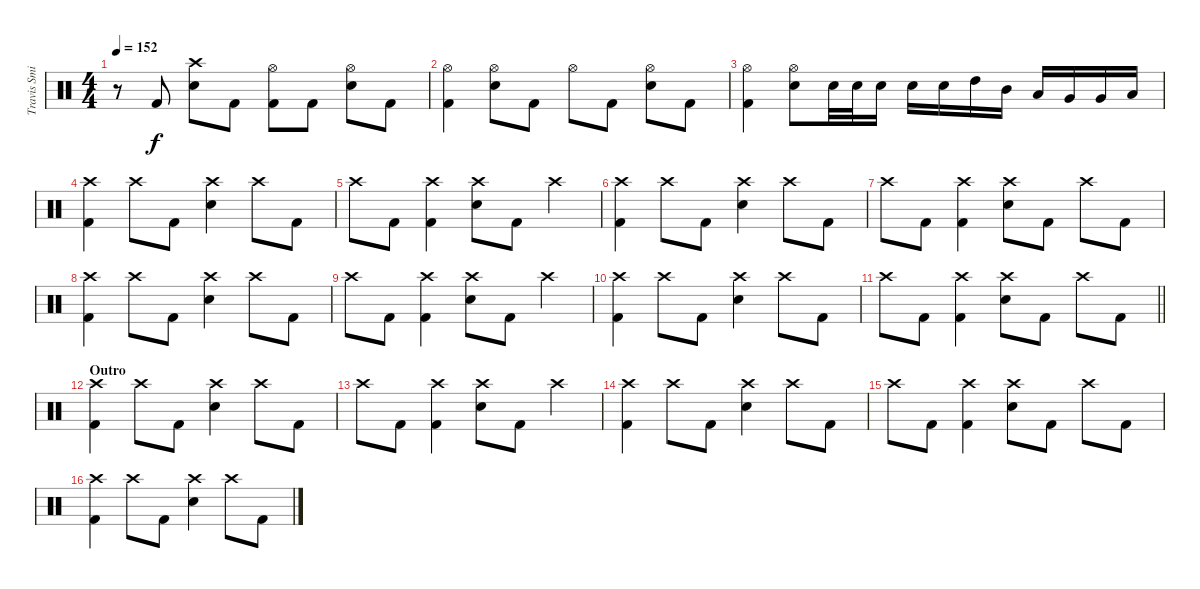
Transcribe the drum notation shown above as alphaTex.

\track ("Travis Smith" "Travis Smi") {instrument percussion}
\staff {score}
\articulation defaults
\ts (4 4)
\tempo 152
\clef neutral
\ks c
r.8{dy f} "Kick (hit) 2".8 ("Snare (hit) 2" "Crash high (hit)").8 "Kick (hit) 2".8 ("Kick (hit) 2" "Hi-Hat (open)").8 "Kick (hit) 2".8 ("Snare (hit) 2" "Hi-Hat (open)").8 "Kick (hit) 2".8 |
("Kick (hit) 2" "Hi-Hat (open)").4 ("Snare (hit) 2" "Hi-Hat (open)").8 "Kick (hit) 2".8 "Hi-Hat (open)".8 "Kick (hit) 2".8 ("Snare (hit) 2" "Hi-Hat (open)").8 "Kick (hit) 2".8 |
("Kick (hit) 2" "Hi-Hat (open)").4 ("Snare (hit) 2" "Hi-Hat (open)").8 "Snare (hit) 2".32 "Snare (hit) 2".32 "Snare (hit) 2".16 "Snare (hit) 2".16 "Snare (hit) 2".16 "High Tom (hit)".16 "Mid Tom (hit)".16 "Low Tom (hit)".16 "Very Low Tom (hit)".16 "Very Low Tom (hit)".16 "Low Floor Tom (hit)".16 |
("Kick (hit) 2" "Crash high (hit)").4 "Crash high (hit)".8 "Kick (hit) 2".8 ("Snare (hit) 2" "Crash high (hit)").4 "Crash high (hit)".8 "Kick (hit) 2".8 |
"Crash high (hit)".8 "Kick (hit) 2".8 ("Kick (hit) 2" "Crash high (hit)").4 ("Snare (hit) 2" "Crash high (hit)").8 "Kick (hit) 2".8 "Crash high (hit)".4 |
("Kick (hit) 2" "Crash high (hit)").4 "Crash high (hit)".8 "Kick (hit) 2".8 ("Snare (hit) 2" "Crash high (hit)").4 "Crash high (hit)".8 "Kick (hit) 2".8 |
"Crash high (hit)".8 "Kick (hit) 2".8 ("Kick (hit) 2" "Crash high (hit)").4 ("Snare (hit) 2" "Crash high (hit)").8 "Kick (hit) 2".8 "Crash high (hit)".8 "Kick (hit) 2".8 |
("Kick (hit) 2" "Crash high (hit)").4 "Crash high (hit)".8 "Kick (hit) 2".8 ("Snare (hit) 2" "Crash high (hit)").4 "Crash high (hit)".8 "Kick (hit) 2".8 |
"Crash high (hit)".8 "Kick (hit) 2".8 ("Kick (hit) 2" "Crash high (hit)").4 ("Snare (hit) 2" "Crash high (hit)").8 "Kick (hit) 2".8 "Crash high (hit)".4 |
("Kick (hit) 2" "Crash high (hit)").4 "Crash high (hit)".8 "Kick (hit) 2".8 ("Snare (hit) 2" "Crash high (hit)").4 "Crash high (hit)".8 "Kick (hit) 2".8 |
\barLineRight lightlight "Crash high (hit)".8 "Kick (hit) 2".8
("Kick (hit) 2" "Crash high (hit)").4 ("Snare (hit) 2" "Crash high (hit)").8 "Kick (hit) 2".8 "Crash high (hit)".8 "Kick (hit) 2".8 |
\section ("" "Outro")
("Kick (hit) 2" "Crash high (hit)").4 "Crash high (hit)".8 "Kick (hit) 2".8 ("Snare (hit) 2" "Crash high (hit)").4 "Crash high (hit)".8 "Kick (hit) 2".8 |
"Crash high (hit)".8 "Kick (hit) 2".8 ("Kick (hit) 2" "Crash high (hit)").4 ("Snare (hit) 2" "Crash high (hit)").8 "Kick (hit) 2".8 "Crash high (hit)".4 |
("Kick (hit) 2" "Crash high (hit)").4 "Crash high (hit)".8 "Kick (hit) 2".8 ("Snare (hit) 2" "Crash high (hit)").4 "Crash high (hit)".8 "Kick (hit) 2".8 |
"Crash high (hit)".8 "Kick (hit) 2".8 ("Kick (hit) 2" "Crash high (hit)").4 ("Snare (hit) 2" "Crash high (hit)").8 "Kick (hit) 2".8 "Crash high (hit)".8 "Kick (hit) 2".8 |
("Kick (hit) 2" "Crash high (hit)").4 "Crash high (hit)".8 "Kick (hit) 2".8 ("Snare (hit) 2" "Crash high (hit)").4 "Crash high (hit)".8 "Kick (hit) 2".8
